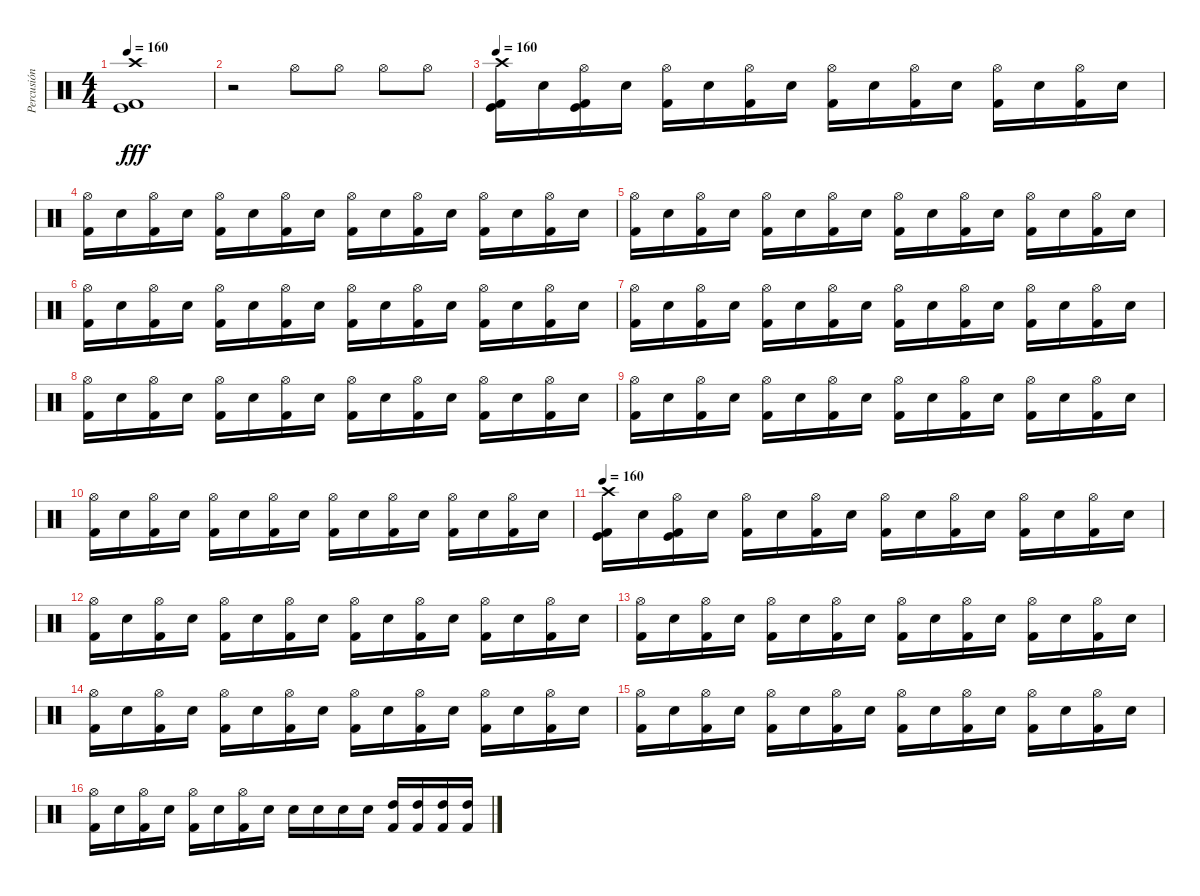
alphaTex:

\track ("Percusión" "Percusión") {instrument percussion}
\staff {score}
\articulation defaults
\ts (4 4)
\tempo 160
\clef neutral
\ks c
("Crash high (hit)" "Kick (hit)" "Kick (hit) 2").1{dy fff} |
r.2 "Hi-Hat (open)".8 "Hi-Hat (open)".8 "Hi-Hat (open)".8 "Hi-Hat (open)".8 |
\tempo 145
\tempo 160
("Crash high (hit)" "Kick (hit) 2" "Kick (hit)").16 "Electric Snare (hit)".16 ("Hi-Hat (open)" "Kick (hit) 2" "Kick (hit)").16 "Electric Snare (hit)".16 ("Hi-Hat (open)" "Kick (hit) 2").16 "Electric Snare (hit)".16 ("Hi-Hat (open)" "Kick (hit) 2").16 "Electric Snare (hit)".16 ("Hi-Hat (open)" "Kick (hit) 2").16 "Electric Snare (hit)".16 ("Hi-Hat (open)" "Kick (hit) 2").16 "Electric Snare (hit)".16 ("Hi-Hat (open)" "Kick (hit) 2").16 "Electric Snare (hit)".16 ("Hi-Hat (open)" "Kick (hit) 2").16 "Electric Snare (hit)".16 |
("Hi-Hat (open)" "Kick (hit) 2").16 "Electric Snare (hit)".16 ("Hi-Hat (open)" "Kick (hit) 2").16 "Electric Snare (hit)".16 ("Hi-Hat (open)" "Kick (hit) 2").16 "Electric Snare (hit)".16 ("Hi-Hat (open)" "Kick (hit) 2").16 "Electric Snare (hit)".16 ("Hi-Hat (open)" "Kick (hit) 2").16 "Electric Snare (hit)".16 ("Hi-Hat (open)" "Kick (hit) 2").16 "Electric Snare (hit)".16 ("Hi-Hat (open)" "Kick (hit) 2").16 "Electric Snare (hit)".16 ("Hi-Hat (open)" "Kick (hit) 2").16 "Electric Snare (hit)".16 |
("Hi-Hat (open)" "Kick (hit) 2").16 "Electric Snare (hit)".16 ("Hi-Hat (open)" "Kick (hit) 2").16 "Electric Snare (hit)".16 ("Hi-Hat (open)" "Kick (hit) 2").16 "Electric Snare (hit)".16 ("Hi-Hat (open)" "Kick (hit) 2").16 "Electric Snare (hit)".16 ("Hi-Hat (open)" "Kick (hit) 2").16 "Electric Snare (hit)".16 ("Hi-Hat (open)" "Kick (hit) 2").16 "Electric Snare (hit)".16 ("Hi-Hat (open)" "Kick (hit) 2").16 "Electric Snare (hit)".16 ("Hi-Hat (open)" "Kick (hit) 2").16 "Electric Snare (hit)".16 |
("Hi-Hat (open)" "Kick (hit) 2").16 "Electric Snare (hit)".16 ("Hi-Hat (open)" "Kick (hit) 2").16 "Electric Snare (hit)".16 ("Hi-Hat (open)" "Kick (hit) 2").16 "Electric Snare (hit)".16 ("Hi-Hat (open)" "Kick (hit) 2").16 "Electric Snare (hit)".16 ("Hi-Hat (open)" "Kick (hit) 2").16 "Electric Snare (hit)".16 ("Hi-Hat (open)" "Kick (hit) 2").16 "Electric Snare (hit)".16 ("Hi-Hat (open)" "Kick (hit) 2").16 "Electric Snare (hit)".16 ("Hi-Hat (open)" "Kick (hit) 2").16 "Electric Snare (hit)".16 |
("Hi-Hat (open)" "Kick (hit) 2").16 "Electric Snare (hit)".16 ("Hi-Hat (open)" "Kick (hit) 2").16 "Electric Snare (hit)".16 ("Hi-Hat (open)" "Kick (hit) 2").16 "Electric Snare (hit)".16 ("Hi-Hat (open)" "Kick (hit) 2").16 "Electric Snare (hit)".16 ("Hi-Hat (open)" "Kick (hit) 2").16 "Electric Snare (hit)".16 ("Hi-Hat (open)" "Kick (hit) 2").16 "Electric Snare (hit)".16 ("Hi-Hat (open)" "Kick (hit) 2").16 "Electric Snare (hit)".16 ("Hi-Hat (open)" "Kick (hit) 2").16 "Electric Snare (hit)".16 |
("Hi-Hat (open)" "Kick (hit) 2").16 "Electric Snare (hit)".16 ("Hi-Hat (open)" "Kick (hit) 2").16 "Electric Snare (hit)".16 ("Hi-Hat (open)" "Kick (hit) 2").16 "Electric Snare (hit)".16 ("Hi-Hat (open)" "Kick (hit) 2").16 "Electric Snare (hit)".16 ("Hi-Hat (open)" "Kick (hit) 2").16 "Electric Snare (hit)".16 ("Hi-Hat (open)" "Kick (hit) 2").16 "Electric Snare (hit)".16 ("Hi-Hat (open)" "Kick (hit) 2").16 "Electric Snare (hit)".16 ("Hi-Hat (open)" "Kick (hit) 2").16 "Electric Snare (hit)".16 |
("Hi-Hat (open)" "Kick (hit) 2").16 "Electric Snare (hit)".16 ("Hi-Hat (open)" "Kick (hit) 2").16 "Electric Snare (hit)".16 ("Hi-Hat (open)" "Kick (hit) 2").16 "Electric Snare (hit)".16 ("Hi-Hat (open)" "Kick (hit) 2").16 "Electric Snare (hit)".16 ("Hi-Hat (open)" "Kick (hit) 2").16 "Electric Snare (hit)".16 ("Hi-Hat (open)" "Kick (hit) 2").16 "Electric Snare (hit)".16 ("Hi-Hat (open)" "Kick (hit) 2").16 "Electric Snare (hit)".16 ("Hi-Hat (open)" "Kick (hit) 2").16 "Electric Snare (hit)".16 |
("Hi-Hat (open)" "Kick (hit) 2").16 "Electric Snare (hit)".16 ("Hi-Hat (open)" "Kick (hit) 2").16 "Electric Snare (hit)".16 ("Hi-Hat (open)" "Kick (hit) 2").16 "Electric Snare (hit)".16 ("Hi-Hat (open)" "Kick (hit) 2").16 "Electric Snare (hit)".16 ("Hi-Hat (open)" "Kick (hit) 2").16 "Electric Snare (hit)".16 ("Hi-Hat (open)" "Kick (hit) 2").16 "Electric Snare (hit)".16 ("Hi-Hat (open)" "Kick (hit) 2").16 "Electric Snare (hit)".16 ("Hi-Hat (open)" "Kick (hit) 2").16 "Electric Snare (hit)".16 |
\tempo 145
\tempo 160
("Crash high (hit)" "Kick (hit) 2" "Kick (hit)").16 "Electric Snare (hit)".16 ("Hi-Hat (open)" "Kick (hit) 2" "Kick (hit)").16 "Electric Snare (hit)".16 ("Hi-Hat (open)" "Kick (hit) 2").16 "Electric Snare (hit)".16 ("Hi-Hat (open)" "Kick (hit) 2").16 "Electric Snare (hit)".16 ("Hi-Hat (open)" "Kick (hit) 2").16 "Electric Snare (hit)".16 ("Hi-Hat (open)" "Kick (hit) 2").16 "Electric Snare (hit)".16 ("Hi-Hat (open)" "Kick (hit) 2").16 "Electric Snare (hit)".16 ("Hi-Hat (open)" "Kick (hit) 2").16 "Electric Snare (hit)".16 |
("Hi-Hat (open)" "Kick (hit) 2").16 "Electric Snare (hit)".16 ("Hi-Hat (open)" "Kick (hit) 2").16 "Electric Snare (hit)".16 ("Hi-Hat (open)" "Kick (hit) 2").16 "Electric Snare (hit)".16 ("Hi-Hat (open)" "Kick (hit) 2").16 "Electric Snare (hit)".16 ("Hi-Hat (open)" "Kick (hit) 2").16 "Electric Snare (hit)".16 ("Hi-Hat (open)" "Kick (hit) 2").16 "Electric Snare (hit)".16 ("Hi-Hat (open)" "Kick (hit) 2").16 "Electric Snare (hit)".16 ("Hi-Hat (open)" "Kick (hit) 2").16 "Electric Snare (hit)".16 |
("Hi-Hat (open)" "Kick (hit) 2").16 "Electric Snare (hit)".16 ("Hi-Hat (open)" "Kick (hit) 2").16 "Electric Snare (hit)".16 ("Hi-Hat (open)" "Kick (hit) 2").16 "Electric Snare (hit)".16 ("Hi-Hat (open)" "Kick (hit) 2").16 "Electric Snare (hit)".16 ("Hi-Hat (open)" "Kick (hit) 2").16 "Electric Snare (hit)".16 ("Hi-Hat (open)" "Kick (hit) 2").16 "Electric Snare (hit)".16 ("Hi-Hat (open)" "Kick (hit) 2").16 "Electric Snare (hit)".16 ("Hi-Hat (open)" "Kick (hit) 2").16 "Electric Snare (hit)".16 |
("Hi-Hat (open)" "Kick (hit) 2").16 "Electric Snare (hit)".16 ("Hi-Hat (open)" "Kick (hit) 2").16 "Electric Snare (hit)".16 ("Hi-Hat (open)" "Kick (hit) 2").16 "Electric Snare (hit)".16 ("Hi-Hat (open)" "Kick (hit) 2").16 "Electric Snare (hit)".16 ("Hi-Hat (open)" "Kick (hit) 2").16 "Electric Snare (hit)".16 ("Hi-Hat (open)" "Kick (hit) 2").16 "Electric Snare (hit)".16 ("Hi-Hat (open)" "Kick (hit) 2").16 "Electric Snare (hit)".16 ("Hi-Hat (open)" "Kick (hit) 2").16 "Electric Snare (hit)".16 |
("Hi-Hat (open)" "Kick (hit) 2").16 "Electric Snare (hit)".16 ("Hi-Hat (open)" "Kick (hit) 2").16 "Electric Snare (hit)".16 ("Hi-Hat (open)" "Kick (hit) 2").16 "Electric Snare (hit)".16 ("Hi-Hat (open)" "Kick (hit) 2").16 "Electric Snare (hit)".16 ("Hi-Hat (open)" "Kick (hit) 2").16 "Electric Snare (hit)".16 ("Hi-Hat (open)" "Kick (hit) 2").16 "Electric Snare (hit)".16 ("Hi-Hat (open)" "Kick (hit) 2").16 "Electric Snare (hit)".16 ("Hi-Hat (open)" "Kick (hit) 2").16 "Electric Snare (hit)".16 |
("Hi-Hat (open)" "Kick (hit) 2").16 "Electric Snare (hit)".16 ("Hi-Hat (open)" "Kick (hit) 2").16 "Electric Snare (hit)".16 ("Hi-Hat (open)" "Kick (hit) 2").16 "Electric Snare (hit)".16 ("Hi-Hat (open)" "Kick (hit) 2").16 "Electric Snare (hit)".16 "Electric Snare (hit)".16 "Electric Snare (hit)".16 "Electric Snare (hit)".16 "Electric Snare (hit)".16 ("High Tom (hit)" "Kick (hit) 2").16 ("High Tom (hit)" "Kick (hit) 2").16 ("High Tom (hit)" "Kick (hit) 2").16 ("High Tom (hit)" "Kick (hit) 2").16
